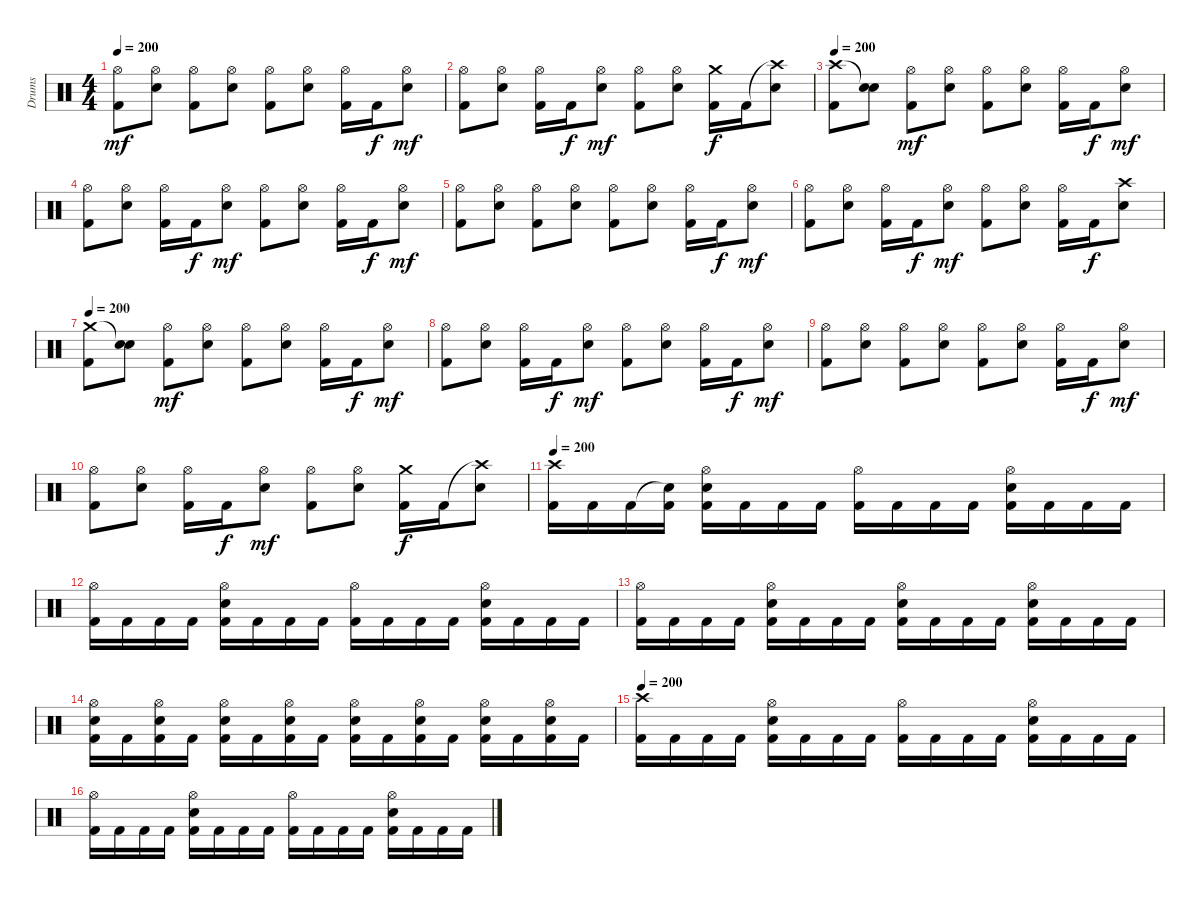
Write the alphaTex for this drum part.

\track ("Drums" "Drums") {instrument percussion}
\staff {score}
\articulation defaults
\ts (4 4)
\tempo 200
\clef neutral
\ks c
("Hi-Hat (open)" "Kick (hit) 2").8{dy mf} ("Hi-Hat (open)" "Electric Snare (hit)").8 ("Hi-Hat (open)" "Kick (hit) 2").8 ("Hi-Hat (open)" "Electric Snare (hit)").8 ("Hi-Hat (open)" "Kick (hit) 2").8 ("Hi-Hat (open)" "Electric Snare (hit)").8 ("Hi-Hat (open)" "Kick (hit) 2").16 "Kick (hit) 2".16{dy f} ("Hi-Hat (open)" "Electric Snare (hit)").8{dy mf} |
("Hi-Hat (open)" "Kick (hit) 2").8 ("Hi-Hat (open)" "Electric Snare (hit)").8 ("Hi-Hat (open)" "Kick (hit) 2").16 "Kick (hit) 2".16{dy f} ("Hi-Hat (open)" "Electric Snare (hit)").8{dy mf} ("Hi-Hat (open)" "Kick (hit) 2").8 ("Hi-Hat (open)" "Electric Snare (hit)").8 ("Crash medium (hit)" "Kick (hit) 2").16{dy f} "Kick (hit) 2".16 ("Crash high (hit)"{t} "Electric Snare (hit)").8 |
\tempo 200
("Crash high (hit)" "Kick (hit) 2").8 ("Snare (hit)"{t} "Electric Snare (hit)").8 ("Hi-Hat (open)" "Kick (hit) 2").8{dy mf} ("Hi-Hat (open)" "Electric Snare (hit)").8 ("Hi-Hat (open)" "Kick (hit) 2").8 ("Hi-Hat (open)" "Electric Snare (hit)").8 ("Hi-Hat (open)" "Kick (hit) 2").16 "Kick (hit) 2".16{dy f} ("Hi-Hat (open)" "Electric Snare (hit)").8{dy mf} |
("Hi-Hat (open)" "Kick (hit) 2").8 ("Hi-Hat (open)" "Electric Snare (hit)").8 ("Hi-Hat (open)" "Kick (hit) 2").16 "Kick (hit) 2".16{dy f} ("Hi-Hat (open)" "Electric Snare (hit)").8{dy mf} ("Hi-Hat (open)" "Kick (hit) 2").8 ("Hi-Hat (open)" "Electric Snare (hit)").8 ("Hi-Hat (open)" "Kick (hit) 2").16 "Kick (hit) 2".16{dy f} ("Hi-Hat (open)" "Electric Snare (hit)").8{dy mf} |
("Hi-Hat (open)" "Kick (hit) 2").8 ("Hi-Hat (open)" "Electric Snare (hit)").8 ("Hi-Hat (open)" "Kick (hit) 2").8 ("Hi-Hat (open)" "Electric Snare (hit)").8 ("Hi-Hat (open)" "Kick (hit) 2").8 ("Hi-Hat (open)" "Electric Snare (hit)").8 ("Hi-Hat (open)" "Kick (hit) 2").16 "Kick (hit) 2".16{dy f} ("Hi-Hat (open)" "Electric Snare (hit)").8{dy mf} |
("Hi-Hat (open)" "Kick (hit) 2").8 ("Hi-Hat (open)" "Electric Snare (hit)").8 ("Hi-Hat (open)" "Kick (hit) 2").16 "Kick (hit) 2".16{dy f} ("Hi-Hat (open)" "Electric Snare (hit)").8{dy mf} ("Hi-Hat (open)" "Kick (hit) 2").8 ("Hi-Hat (open)" "Electric Snare (hit)").8 ("Hi-Hat (open)" "Kick (hit) 2").16 "Kick (hit) 2".16{dy f} ("Crash high (hit)" "Electric Snare (hit)").8 |
\tempo 200
("Crash medium (hit)" "Kick (hit) 2").8 ("Snare (hit)"{t} "Electric Snare (hit)").8 ("Hi-Hat (open)" "Kick (hit) 2").8{dy mf} ("Hi-Hat (open)" "Electric Snare (hit)").8 ("Hi-Hat (open)" "Kick (hit) 2").8 ("Hi-Hat (open)" "Electric Snare (hit)").8 ("Hi-Hat (open)" "Kick (hit) 2").16 "Kick (hit) 2".16{dy f} ("Hi-Hat (open)" "Electric Snare (hit)").8{dy mf} |
("Hi-Hat (open)" "Kick (hit) 2").8 ("Hi-Hat (open)" "Electric Snare (hit)").8 ("Hi-Hat (open)" "Kick (hit) 2").16 "Kick (hit) 2".16{dy f} ("Hi-Hat (open)" "Electric Snare (hit)").8{dy mf} ("Hi-Hat (open)" "Kick (hit) 2").8 ("Hi-Hat (open)" "Electric Snare (hit)").8 ("Hi-Hat (open)" "Kick (hit) 2").16 "Kick (hit) 2".16{dy f} ("Hi-Hat (open)" "Electric Snare (hit)").8{dy mf} |
("Hi-Hat (open)" "Kick (hit) 2").8 ("Hi-Hat (open)" "Electric Snare (hit)").8 ("Hi-Hat (open)" "Kick (hit) 2").8 ("Hi-Hat (open)" "Electric Snare (hit)").8 ("Hi-Hat (open)" "Kick (hit) 2").8 ("Hi-Hat (open)" "Electric Snare (hit)").8 ("Hi-Hat (open)" "Kick (hit) 2").16 "Kick (hit) 2".16{dy f} ("Hi-Hat (open)" "Electric Snare (hit)").8{dy mf} |
("Hi-Hat (open)" "Kick (hit) 2").8 ("Hi-Hat (open)" "Electric Snare (hit)").8 ("Hi-Hat (open)" "Kick (hit) 2").16 "Kick (hit) 2".16{dy f} ("Hi-Hat (open)" "Electric Snare (hit)").8{dy mf} ("Hi-Hat (open)" "Kick (hit) 2").8 ("Hi-Hat (open)" "Electric Snare (hit)").8 ("Crash medium (hit)" "Kick (hit) 2").16{dy f} "Kick (hit) 2".16 ("Crash high (hit)"{t} "Electric Snare (hit)").8 |
\tempo 200
("Crash high (hit)" "Kick (hit) 2").16 "Kick (hit) 2".16 "Kick (hit) 2".16 ("Snare (hit)"{t} "Kick (hit) 2").16 ("Hi-Hat (open)" "Electric Snare (hit)" "Kick (hit) 2").16 "Kick (hit) 2".16 "Kick (hit) 2".16 "Kick (hit) 2".16 ("Hi-Hat (open)" "Kick (hit) 2").16 "Kick (hit) 2".16 "Kick (hit) 2".16 "Kick (hit) 2".16 ("Hi-Hat (open)" "Electric Snare (hit)" "Kick (hit) 2").16 "Kick (hit) 2".16 "Kick (hit) 2".16 "Kick (hit) 2".16 |
("Hi-Hat (open)" "Kick (hit) 2").16 "Kick (hit) 2".16 "Kick (hit) 2".16 "Kick (hit) 2".16 ("Hi-Hat (open)" "Electric Snare (hit)" "Kick (hit) 2").16 "Kick (hit) 2".16 "Kick (hit) 2".16 "Kick (hit) 2".16 ("Hi-Hat (open)" "Kick (hit) 2").16 "Kick (hit) 2".16 "Kick (hit) 2".16 "Kick (hit) 2".16 ("Hi-Hat (open)" "Electric Snare (hit)" "Kick (hit) 2").16 "Kick (hit) 2".16 "Kick (hit) 2".16 "Kick (hit) 2".16 |
("Hi-Hat (open)" "Kick (hit) 2").16 "Kick (hit) 2".16 "Kick (hit) 2".16 "Kick (hit) 2".16 ("Hi-Hat (open)" "Electric Snare (hit)" "Kick (hit) 2").16 "Kick (hit) 2".16 "Kick (hit) 2".16 "Kick (hit) 2".16 ("Hi-Hat (open)" "Electric Snare (hit)" "Kick (hit) 2").16 "Kick (hit) 2".16 "Kick (hit) 2".16 "Kick (hit) 2".16 ("Hi-Hat (open)" "Electric Snare (hit)" "Kick (hit) 2").16 "Kick (hit) 2".16 "Kick (hit) 2".16 "Kick (hit) 2".16 |
("Hi-Hat (open)" "Electric Snare (hit)" "Kick (hit) 2").16 "Kick (hit) 2".16 ("Hi-Hat (open)" "Electric Snare (hit)" "Kick (hit) 2").16 "Kick (hit) 2".16 ("Hi-Hat (open)" "Electric Snare (hit)" "Kick (hit) 2").16 "Kick (hit) 2".16 ("Hi-Hat (open)" "Electric Snare (hit)" "Kick (hit) 2").16 "Kick (hit) 2".16 ("Hi-Hat (open)" "Electric Snare (hit)" "Kick (hit) 2").16 "Kick (hit) 2".16 ("Hi-Hat (open)" "Electric Snare (hit)" "Kick (hit) 2").16 "Kick (hit) 2".16 ("Hi-Hat (open)" "Electric Snare (hit)" "Kick (hit) 2").16 "Kick (hit) 2".16 ("Hi-Hat (open)" "Electric Snare (hit)" "Kick (hit) 2").16 "Kick (hit) 2".16 |
\tempo 200
("Crash high (hit)" "Kick (hit) 2").16 "Kick (hit) 2".16 "Kick (hit) 2".16 "Kick (hit) 2".16 ("Hi-Hat (open)" "Electric Snare (hit)" "Kick (hit) 2").16 "Kick (hit) 2".16 "Kick (hit) 2".16 "Kick (hit) 2".16 ("Hi-Hat (open)" "Kick (hit) 2").16 "Kick (hit) 2".16 "Kick (hit) 2".16 "Kick (hit) 2".16 ("Hi-Hat (open)" "Electric Snare (hit)" "Kick (hit) 2").16 "Kick (hit) 2".16 "Kick (hit) 2".16 "Kick (hit) 2".16 |
("Hi-Hat (open)" "Kick (hit) 2").16 "Kick (hit) 2".16 "Kick (hit) 2".16 "Kick (hit) 2".16 ("Hi-Hat (open)" "Electric Snare (hit)" "Kick (hit) 2").16 "Kick (hit) 2".16 "Kick (hit) 2".16 "Kick (hit) 2".16 ("Hi-Hat (open)" "Kick (hit) 2").16 "Kick (hit) 2".16 "Kick (hit) 2".16 "Kick (hit) 2".16 ("Hi-Hat (open)" "Electric Snare (hit)" "Kick (hit) 2").16 "Kick (hit) 2".16 "Kick (hit) 2".16 "Kick (hit) 2".16
